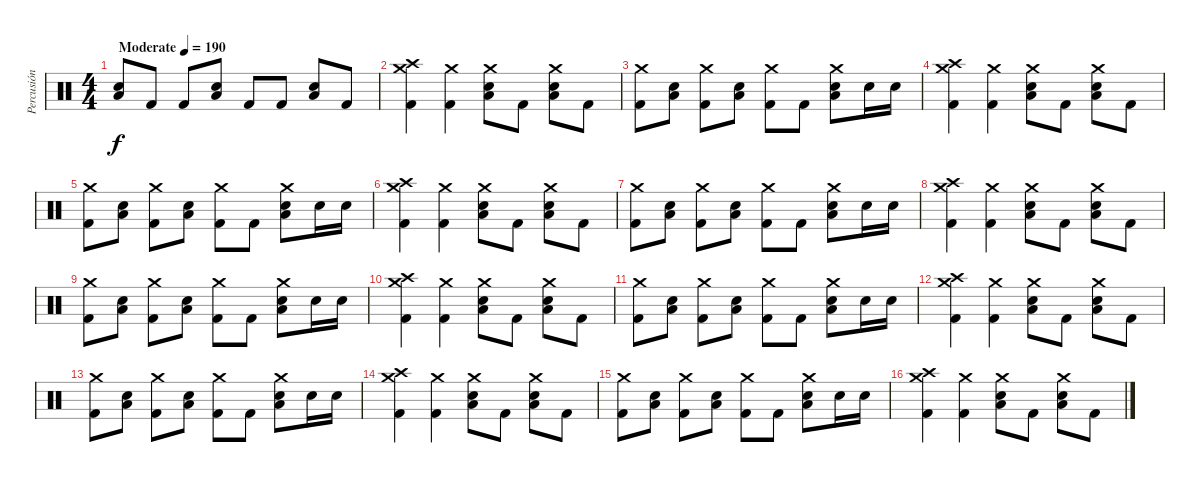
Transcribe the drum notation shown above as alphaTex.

\track ("Percusión" "Percusión") {instrument percussion}
\staff {score}
\articulation defaults
\ts (4 4)
\tempo (190 "Moderate")
\clef neutral
\ks c
("Low Tom (hit)" "Snare (hit) 2").8{dy f} "Kick (hit) 2".8 "Kick (hit) 2".8 ("Low Tom (hit)" "Snare (hit) 2").8 "Kick (hit) 2".8 "Kick (hit) 2".8 ("Low Tom (hit)" "Snare (hit) 2").8 "Kick (hit) 2".8 |
("Crash medium (hit)" "Crash high (hit)" "Kick (hit) 2").4 ("Crash medium (hit)" "Kick (hit) 2").4 ("Crash medium (hit)" "Low Tom (hit)" "Snare (hit) 2").8 "Kick (hit) 2".8 ("Crash medium (hit)" "Low Tom (hit)" "Snare (hit) 2").8 "Kick (hit) 2".8 |
("Crash medium (hit)" "Kick (hit) 2").8 ("Low Tom (hit)" "Snare (hit) 2").8 ("Crash medium (hit)" "Kick (hit) 2").8 ("Low Tom (hit)" "Snare (hit) 2").8 ("Crash medium (hit)" "Kick (hit) 2").8 "Kick (hit) 2".8 ("Crash medium (hit)" "Low Tom (hit)" "Snare (hit) 2").8 "Snare (hit) 2".16 "Snare (hit) 2".16 |
("Crash medium (hit)" "Crash high (hit)" "Kick (hit) 2").4 ("Crash medium (hit)" "Kick (hit) 2").4 ("Crash medium (hit)" "Low Tom (hit)" "Snare (hit) 2").8 "Kick (hit) 2".8 ("Crash medium (hit)" "Low Tom (hit)" "Snare (hit) 2").8 "Kick (hit) 2".8 |
("Crash medium (hit)" "Kick (hit) 2").8 ("Low Tom (hit)" "Snare (hit) 2").8 ("Crash medium (hit)" "Kick (hit) 2").8 ("Low Tom (hit)" "Snare (hit) 2").8 ("Crash medium (hit)" "Kick (hit) 2").8 "Kick (hit) 2".8 ("Crash medium (hit)" "Low Tom (hit)" "Snare (hit) 2").8 "Snare (hit) 2".16 "Snare (hit) 2".16 |
("Crash medium (hit)" "Crash high (hit)" "Kick (hit) 2").4 ("Crash medium (hit)" "Kick (hit) 2").4 ("Crash medium (hit)" "Low Tom (hit)" "Snare (hit) 2").8 "Kick (hit) 2".8 ("Crash medium (hit)" "Low Tom (hit)" "Snare (hit) 2").8 "Kick (hit) 2".8 |
("Crash medium (hit)" "Kick (hit) 2").8 ("Low Tom (hit)" "Snare (hit) 2").8 ("Crash medium (hit)" "Kick (hit) 2").8 ("Low Tom (hit)" "Snare (hit) 2").8 ("Crash medium (hit)" "Kick (hit) 2").8 "Kick (hit) 2".8 ("Crash medium (hit)" "Low Tom (hit)" "Snare (hit) 2").8 "Snare (hit) 2".16 "Snare (hit) 2".16 |
("Crash medium (hit)" "Crash high (hit)" "Kick (hit) 2").4 ("Crash medium (hit)" "Kick (hit) 2").4 ("Crash medium (hit)" "Low Tom (hit)" "Snare (hit) 2").8 "Kick (hit) 2".8 ("Crash medium (hit)" "Low Tom (hit)" "Snare (hit) 2").8 "Kick (hit) 2".8 |
("Crash medium (hit)" "Kick (hit) 2").8 ("Low Tom (hit)" "Snare (hit) 2").8 ("Crash medium (hit)" "Kick (hit) 2").8 ("Low Tom (hit)" "Snare (hit) 2").8 ("Crash medium (hit)" "Kick (hit) 2").8 "Kick (hit) 2".8 ("Crash medium (hit)" "Low Tom (hit)" "Snare (hit) 2").8 "Snare (hit) 2".16 "Snare (hit) 2".16 |
("Crash medium (hit)" "Crash high (hit)" "Kick (hit) 2").4 ("Crash medium (hit)" "Kick (hit) 2").4 ("Crash medium (hit)" "Low Tom (hit)" "Snare (hit) 2").8 "Kick (hit) 2".8 ("Crash medium (hit)" "Low Tom (hit)" "Snare (hit) 2").8 "Kick (hit) 2".8 |
("Crash medium (hit)" "Kick (hit) 2").8 ("Low Tom (hit)" "Snare (hit) 2").8 ("Crash medium (hit)" "Kick (hit) 2").8 ("Low Tom (hit)" "Snare (hit) 2").8 ("Crash medium (hit)" "Kick (hit) 2").8 "Kick (hit) 2".8 ("Crash medium (hit)" "Low Tom (hit)" "Snare (hit) 2").8 "Snare (hit) 2".16 "Snare (hit) 2".16 |
("Crash medium (hit)" "Crash high (hit)" "Kick (hit) 2").4 ("Crash medium (hit)" "Kick (hit) 2").4 ("Crash medium (hit)" "Low Tom (hit)" "Snare (hit) 2").8 "Kick (hit) 2".8 ("Crash medium (hit)" "Low Tom (hit)" "Snare (hit) 2").8 "Kick (hit) 2".8 |
("Crash medium (hit)" "Kick (hit) 2").8 ("Low Tom (hit)" "Snare (hit) 2").8 ("Crash medium (hit)" "Kick (hit) 2").8 ("Low Tom (hit)" "Snare (hit) 2").8 ("Crash medium (hit)" "Kick (hit) 2").8 "Kick (hit) 2".8 ("Crash medium (hit)" "Low Tom (hit)" "Snare (hit) 2").8 "Snare (hit) 2".16 "Snare (hit) 2".16 |
("Crash medium (hit)" "Crash high (hit)" "Kick (hit) 2").4 ("Crash medium (hit)" "Kick (hit) 2").4 ("Crash medium (hit)" "Low Tom (hit)" "Snare (hit) 2").8 "Kick (hit) 2".8 ("Crash medium (hit)" "Low Tom (hit)" "Snare (hit) 2").8 "Kick (hit) 2".8 |
("Crash medium (hit)" "Kick (hit) 2").8 ("Low Tom (hit)" "Snare (hit) 2").8 ("Crash medium (hit)" "Kick (hit) 2").8 ("Low Tom (hit)" "Snare (hit) 2").8 ("Crash medium (hit)" "Kick (hit) 2").8 "Kick (hit) 2".8 ("Crash medium (hit)" "Low Tom (hit)" "Snare (hit) 2").8 "Snare (hit) 2".16 "Snare (hit) 2".16 |
("Crash medium (hit)" "Crash high (hit)" "Kick (hit) 2").4 ("Crash medium (hit)" "Kick (hit) 2").4 ("Crash medium (hit)" "Low Tom (hit)" "Snare (hit) 2").8 "Kick (hit) 2".8 ("Crash medium (hit)" "Low Tom (hit)" "Snare (hit) 2").8 "Kick (hit) 2".8
